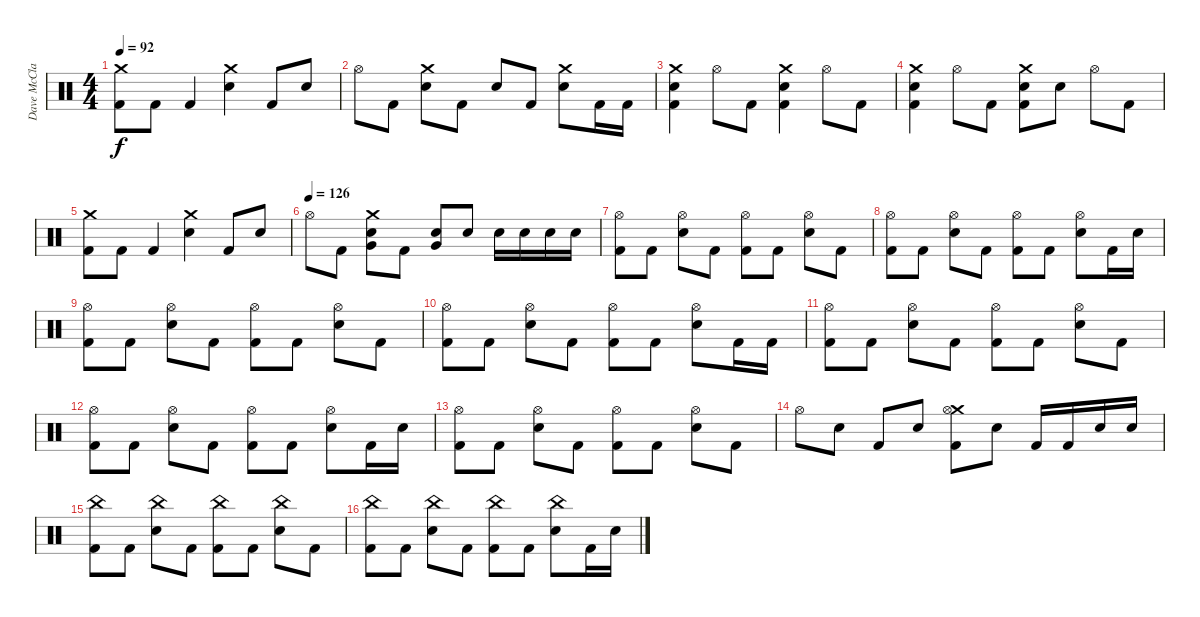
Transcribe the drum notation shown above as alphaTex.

\track ("Dave McClain" "Dave McCla") {instrument percussion}
\staff {score}
\articulation defaults
\ts (4 4)
\tempo 92
\clef neutral
\ks c
("Crash medium (hit)" "Kick (hit) 2").8{dy f} "Kick (hit) 2".8 "Kick (hit) 2".4 ("Crash medium (hit)" "Electric Snare (hit)").4 "Kick (hit) 2".8 "Electric Snare (hit)".8 |
"Hi-Hat (open)".8 "Kick (hit) 2".8 ("Crash medium (hit)" "Electric Snare (hit)").8 "Kick (hit) 2".8 "Electric Snare (hit)".8 "Kick (hit) 2".8 ("Crash medium (hit)" "Electric Snare (hit)").8 "Kick (hit) 2".16 "Kick (hit) 2".16 |
("Crash medium (hit)" "Electric Snare (hit)" "Kick (hit) 2").4 "Hi-Hat (open)".8 "Kick (hit) 2".8 ("Crash medium (hit)" "Electric Snare (hit)" "Kick (hit) 2").4 "Hi-Hat (open)".8 "Kick (hit) 2".8 |
("Crash medium (hit)" "Electric Snare (hit)" "Kick (hit) 2").4 "Hi-Hat (open)".8 "Kick (hit) 2".8 ("Crash medium (hit)" "Electric Snare (hit)" "Kick (hit) 2").8 "Electric Snare (hit)".8 "Hi-Hat (open)".8 "Kick (hit) 2".8 |
("Crash medium (hit)" "Kick (hit) 2").8 "Kick (hit) 2".8 "Kick (hit) 2".4 ("Crash medium (hit)" "Electric Snare (hit)").4 "Kick (hit) 2".8 "Electric Snare (hit)".8 |
\tempo (126)
"Hi-Hat (open)".8 "Kick (hit) 2".8 ("Crash medium (hit)" "Electric Snare (hit)" "Very Low Tom (hit)").8 "Kick (hit) 2".8 ("Electric Snare (hit)" "Very Low Tom (hit)").8 "Electric Snare (hit)".8 "Electric Snare (hit)".16 "Electric Snare (hit)".16 "Electric Snare (hit)".16 "Electric Snare (hit)".16 |
("Hi-Hat (open)" "Kick (hit) 2").8 "Kick (hit) 2".8 ("Hi-Hat (open)" "Electric Snare (hit)").8 "Kick (hit) 2".8 ("Hi-Hat (open)" "Kick (hit) 2").8 "Kick (hit) 2".8 ("Hi-Hat (open)" "Electric Snare (hit)").8 "Kick (hit) 2".8 |
("Hi-Hat (open)" "Kick (hit) 2").8 "Kick (hit) 2".8 ("Hi-Hat (open)" "Electric Snare (hit)").8 "Kick (hit) 2".8 ("Hi-Hat (open)" "Kick (hit) 2").8 "Kick (hit) 2".8 ("Hi-Hat (open)" "Electric Snare (hit)").8 "Kick (hit) 2".16 "Electric Snare (hit)".16 |
("Hi-Hat (open)" "Kick (hit) 2").8 "Kick (hit) 2".8 ("Hi-Hat (open)" "Electric Snare (hit)").8 "Kick (hit) 2".8 ("Hi-Hat (open)" "Kick (hit) 2").8 "Kick (hit) 2".8 ("Hi-Hat (open)" "Electric Snare (hit)").8 "Kick (hit) 2".8 |
("Hi-Hat (open)" "Kick (hit) 2").8 "Kick (hit) 2".8 ("Hi-Hat (open)" "Electric Snare (hit)").8 "Kick (hit) 2".8 ("Hi-Hat (open)" "Kick (hit) 2").8 "Kick (hit) 2".8 ("Hi-Hat (open)" "Electric Snare (hit)").8 "Kick (hit) 2".16 "Kick (hit) 2".16 |
("Hi-Hat (open)" "Kick (hit) 2").8 "Kick (hit) 2".8 ("Hi-Hat (open)" "Electric Snare (hit)").8 "Kick (hit) 2".8 ("Hi-Hat (open)" "Kick (hit) 2").8 "Kick (hit) 2".8 ("Hi-Hat (open)" "Electric Snare (hit)").8 "Kick (hit) 2".8 |
("Hi-Hat (open)" "Kick (hit) 2").8 "Kick (hit) 2".8 ("Hi-Hat (open)" "Electric Snare (hit)").8 "Kick (hit) 2".8 ("Hi-Hat (open)" "Kick (hit) 2").8 "Kick (hit) 2".8 ("Hi-Hat (open)" "Electric Snare (hit)").8 "Kick (hit) 2".16 "Electric Snare (hit)".16 |
("Hi-Hat (open)" "Kick (hit) 2").8 "Kick (hit) 2".8 ("Hi-Hat (open)" "Electric Snare (hit)").8 "Kick (hit) 2".8 ("Hi-Hat (open)" "Kick (hit) 2").8 "Kick (hit) 2".8 ("Hi-Hat (open)" "Electric Snare (hit)").8 "Kick (hit) 2".8 |
"Hi-Hat (open)".8 "Electric Snare (hit)".8 "Kick (hit) 2".8 "Electric Snare (hit)".8 ("Crash medium (hit)" "Hi-Hat (open)" "Kick (hit) 2").8 "Electric Snare (hit)".8 "Kick (hit) 2".16 "Kick (hit) 2".16 "Electric Snare (hit)".16 "Electric Snare (hit)".16 |
("China (hit)" "Kick (hit) 2").8 "Kick (hit) 2".8 ("China (hit)" "Electric Snare (hit)").8 "Kick (hit) 2".8 ("China (hit)" "Kick (hit) 2").8 "Kick (hit) 2".8 ("China (hit)" "Electric Snare (hit)").8 "Kick (hit) 2".8 |
("China (hit)" "Kick (hit) 2").8 "Kick (hit) 2".8 ("China (hit)" "Electric Snare (hit)").8 "Kick (hit) 2".8 ("China (hit)" "Kick (hit) 2").8 "Kick (hit) 2".8 ("China (hit)" "Electric Snare (hit)").8 "Kick (hit) 2".16 "Electric Snare (hit)".16
